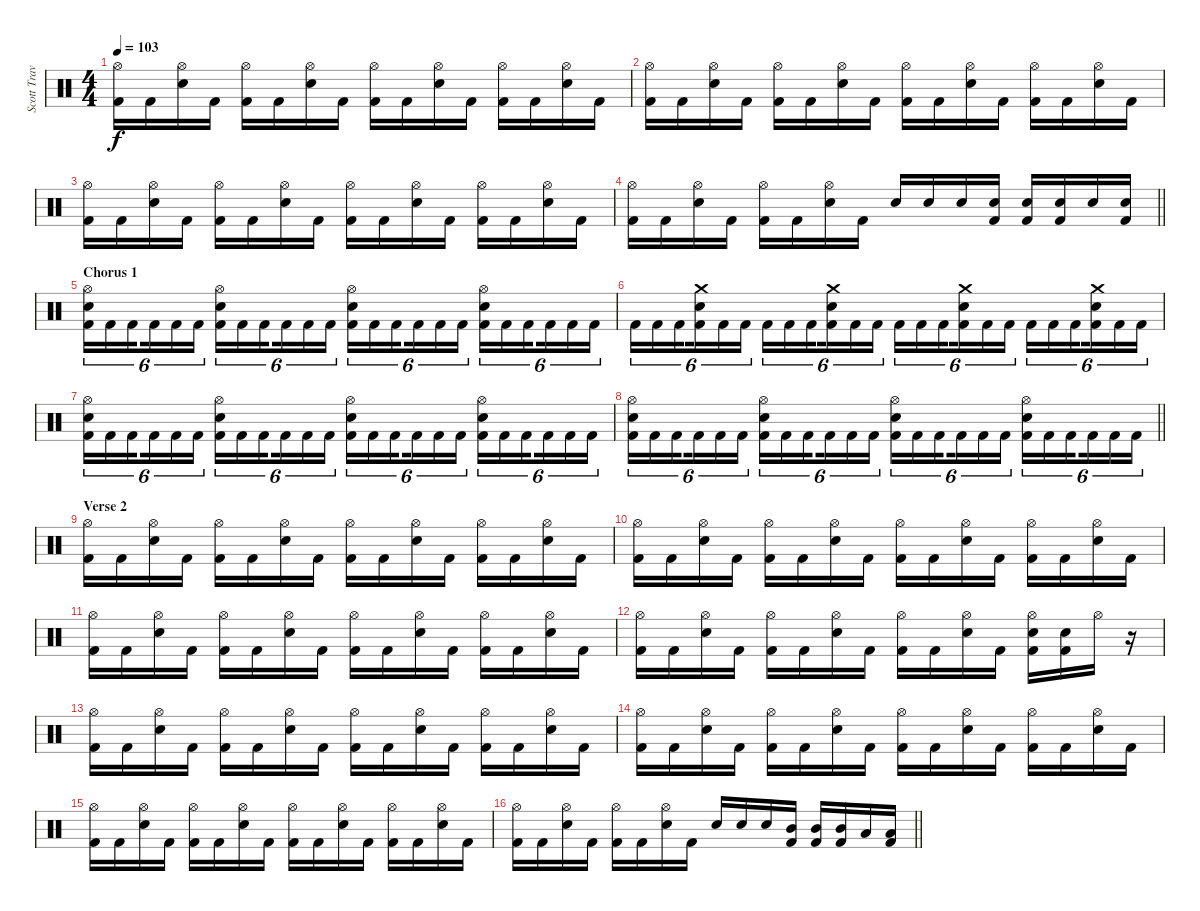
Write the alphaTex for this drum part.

\track ("Scott Travis" "Scott Trav") {instrument percussion}
\staff {score}
\articulation defaults
\ts (4 4)
\tempo 103
\clef neutral
\ks c
("Hi-Hat (open)" "Kick (hit) 2").16{dy f} "Kick (hit) 2".16 ("Hi-Hat (open)" "Snare (hit) 2").16 "Kick (hit) 2".16 ("Hi-Hat (open)" "Kick (hit) 2").16 "Kick (hit) 2".16 ("Hi-Hat (open)" "Snare (hit) 2").16 "Kick (hit) 2".16 ("Hi-Hat (open)" "Kick (hit) 2").16 "Kick (hit) 2".16 ("Hi-Hat (open)" "Snare (hit) 2").16 "Kick (hit) 2".16 ("Hi-Hat (open)" "Kick (hit) 2").16 "Kick (hit) 2".16 ("Hi-Hat (open)" "Snare (hit) 2").16 "Kick (hit) 2".16 |
("Hi-Hat (open)" "Kick (hit) 2").16 "Kick (hit) 2".16 ("Hi-Hat (open)" "Snare (hit) 2").16 "Kick (hit) 2".16 ("Hi-Hat (open)" "Kick (hit) 2").16 "Kick (hit) 2".16 ("Hi-Hat (open)" "Snare (hit) 2").16 "Kick (hit) 2".16 ("Hi-Hat (open)" "Kick (hit) 2").16 "Kick (hit) 2".16 ("Hi-Hat (open)" "Snare (hit) 2").16 "Kick (hit) 2".16 ("Hi-Hat (open)" "Kick (hit) 2").16 "Kick (hit) 2".16 ("Hi-Hat (open)" "Snare (hit) 2").16 "Kick (hit) 2".16 |
("Hi-Hat (open)" "Kick (hit) 2").16 "Kick (hit) 2".16 ("Hi-Hat (open)" "Snare (hit) 2").16 "Kick (hit) 2".16 ("Hi-Hat (open)" "Kick (hit) 2").16 "Kick (hit) 2".16 ("Hi-Hat (open)" "Snare (hit) 2").16 "Kick (hit) 2".16 ("Hi-Hat (open)" "Kick (hit) 2").16 "Kick (hit) 2".16 ("Hi-Hat (open)" "Snare (hit) 2").16 "Kick (hit) 2".16 ("Hi-Hat (open)" "Kick (hit) 2").16 "Kick (hit) 2".16 ("Hi-Hat (open)" "Snare (hit) 2").16 "Kick (hit) 2".16 |
\barLineRight lightlight
("Hi-Hat (open)" "Kick (hit) 2").16 "Kick (hit) 2".16 ("Hi-Hat (open)" "Snare (hit) 2").16 "Kick (hit) 2".16 ("Hi-Hat (open)" "Kick (hit) 2").16 "Kick (hit) 2".16 ("Hi-Hat (open)" "Snare (hit) 2").16 "Kick (hit) 2".16 "Snare (hit) 2".16 "Snare (hit) 2".16 "Snare (hit) 2".16 ("Snare (hit) 2" "Kick (hit) 2").16 ("Snare (hit) 2" "Kick (hit) 2").16 ("Snare (hit) 2" "Kick (hit) 2").16 "Snare (hit) 2".16 ("Snare (hit) 2" "Kick (hit) 2").16 |
\section ("" "Chorus 1")
("Hi-Hat (open)" "Snare (hit) 2" "Kick (hit) 2").16{tu (6 4)} "Kick (hit) 2".16{tu (6 4)} "Kick (hit) 2".16{tu (6 4) beam splitsecondary} "Kick (hit) 2".16{tu (6 4)} "Kick (hit) 2".16{tu (6 4)} "Kick (hit) 2".16{tu (6 4)} ("Hi-Hat (open)" "Snare (hit) 2" "Kick (hit) 2").16{tu (6 4)} "Kick (hit) 2".16{tu (6 4)} "Kick (hit) 2".16{tu (6 4) beam splitsecondary} "Kick (hit) 2".16{tu (6 4)} "Kick (hit) 2".16{tu (6 4)} "Kick (hit) 2".16{tu (6 4)} ("Hi-Hat (open)" "Snare (hit) 2" "Kick (hit) 2").16{tu (6 4)} "Kick (hit) 2".16{tu (6 4)} "Kick (hit) 2".16{tu (6 4) beam splitsecondary} "Kick (hit) 2".16{tu (6 4)} "Kick (hit) 2".16{tu (6 4)} "Kick (hit) 2".16{tu (6 4)} ("Hi-Hat (open)" "Snare (hit) 2" "Kick (hit) 2").16{tu (6 4)} "Kick (hit) 2".16{tu (6 4)} "Kick (hit) 2".16{tu (6 4) beam splitsecondary} "Kick (hit) 2".16{tu (6 4)} "Kick (hit) 2".16{tu (6 4)} "Kick (hit) 2".16{tu (6 4)} |
"Kick (hit) 2".16{tu (6 4)} "Kick (hit) 2".16{tu (6 4)} "Kick (hit) 2".16{tu (6 4) beam splitsecondary} ("Crash medium (hit)" "Snare (hit) 2" "Kick (hit) 2").16{tu (6 4)} "Kick (hit) 2".16{tu (6 4)} "Kick (hit) 2".16{tu (6 4)} "Kick (hit) 2".16{tu (6 4)} "Kick (hit) 2".16{tu (6 4)} "Kick (hit) 2".16{tu (6 4) beam splitsecondary} ("Crash medium (hit)" "Snare (hit) 2" "Kick (hit) 2").16{tu (6 4)} "Kick (hit) 2".16{tu (6 4)} "Kick (hit) 2".16{tu (6 4)} "Kick (hit) 2".16{tu (6 4)} "Kick (hit) 2".16{tu (6 4)} "Kick (hit) 2".16{tu (6 4) beam splitsecondary} ("Crash medium (hit)" "Snare (hit) 2" "Kick (hit) 2").16{tu (6 4)} "Kick (hit) 2".16{tu (6 4)} "Kick (hit) 2".16{tu (6 4)} "Kick (hit) 2".16{tu (6 4)} "Kick (hit) 2".16{tu (6 4)} "Kick (hit) 2".16{tu (6 4) beam splitsecondary} ("Snare (hit) 2" "Crash medium (hit)" "Kick (hit) 2").16{tu (6 4)} "Kick (hit) 2".16{tu (6 4)} "Kick (hit) 2".16{tu (6 4)} |
("Hi-Hat (open)" "Snare (hit) 2" "Kick (hit) 2").16{tu (6 4)} "Kick (hit) 2".16{tu (6 4)} "Kick (hit) 2".16{tu (6 4) beam splitsecondary} "Kick (hit) 2".16{tu (6 4)} "Kick (hit) 2".16{tu (6 4)} "Kick (hit) 2".16{tu (6 4)} ("Hi-Hat (open)" "Snare (hit) 2" "Kick (hit) 2").16{tu (6 4)} "Kick (hit) 2".16{tu (6 4)} "Kick (hit) 2".16{tu (6 4) beam splitsecondary} "Kick (hit) 2".16{tu (6 4)} "Kick (hit) 2".16{tu (6 4)} "Kick (hit) 2".16{tu (6 4)} ("Hi-Hat (open)" "Snare (hit) 2" "Kick (hit) 2").16{tu (6 4)} "Kick (hit) 2".16{tu (6 4)} "Kick (hit) 2".16{tu (6 4) beam splitsecondary} "Kick (hit) 2".16{tu (6 4)} "Kick (hit) 2".16{tu (6 4)} "Kick (hit) 2".16{tu (6 4)} ("Hi-Hat (open)" "Snare (hit) 2" "Kick (hit) 2").16{tu (6 4)} "Kick (hit) 2".16{tu (6 4)} "Kick (hit) 2".16{tu (6 4) beam splitsecondary} "Kick (hit) 2".16{tu (6 4)} "Kick (hit) 2".16{tu (6 4)} "Kick (hit) 2".16{tu (6 4)} |
\barLineRight lightlight
("Hi-Hat (open)" "Snare (hit) 2" "Kick (hit) 2").16{tu (6 4)} "Kick (hit) 2".16{tu (6 4)} "Kick (hit) 2".16{tu (6 4) beam splitsecondary} "Kick (hit) 2".16{tu (6 4)} "Kick (hit) 2".16{tu (6 4)} "Kick (hit) 2".16{tu (6 4)} ("Hi-Hat (open)" "Snare (hit) 2" "Kick (hit) 2").16{tu (6 4)} "Kick (hit) 2".16{tu (6 4)} "Kick (hit) 2".16{tu (6 4) beam splitsecondary} "Kick (hit) 2".16{tu (6 4)} "Kick (hit) 2".16{tu (6 4)} "Kick (hit) 2".16{tu (6 4)} ("Hi-Hat (open)" "Snare (hit) 2" "Kick (hit) 2").16{tu (6 4)} "Kick (hit) 2".16{tu (6 4)} "Kick (hit) 2".16{tu (6 4) beam splitsecondary} "Kick (hit) 2".16{tu (6 4)} "Kick (hit) 2".16{tu (6 4)} "Kick (hit) 2".16{tu (6 4)} ("Hi-Hat (open)" "Snare (hit) 2" "Kick (hit) 2").16{tu (6 4)} "Kick (hit) 2".16{tu (6 4)} "Kick (hit) 2".16{tu (6 4) beam splitsecondary} "Kick (hit) 2".16{tu (6 4)} "Kick (hit) 2".16{tu (6 4)} "Kick (hit) 2".16{tu (6 4)} |
\section ("" "Verse 2")
("Hi-Hat (open)" "Kick (hit) 2").16 "Kick (hit) 2".16 ("Hi-Hat (open)" "Snare (hit) 2").16 "Kick (hit) 2".16 ("Hi-Hat (open)" "Kick (hit) 2").16 "Kick (hit) 2".16 ("Hi-Hat (open)" "Snare (hit) 2").16 "Kick (hit) 2".16 ("Hi-Hat (open)" "Kick (hit) 2").16 "Kick (hit) 2".16 ("Hi-Hat (open)" "Snare (hit) 2").16 "Kick (hit) 2".16 ("Hi-Hat (open)" "Kick (hit) 2").16 "Kick (hit) 2".16 ("Hi-Hat (open)" "Snare (hit) 2").16 "Kick (hit) 2".16 |
("Hi-Hat (open)" "Kick (hit) 2").16 "Kick (hit) 2".16 ("Hi-Hat (open)" "Snare (hit) 2").16 "Kick (hit) 2".16 ("Hi-Hat (open)" "Kick (hit) 2").16 "Kick (hit) 2".16 ("Hi-Hat (open)" "Snare (hit) 2").16 "Kick (hit) 2".16 ("Hi-Hat (open)" "Kick (hit) 2").16 "Kick (hit) 2".16 ("Hi-Hat (open)" "Snare (hit) 2").16 "Kick (hit) 2".16 ("Hi-Hat (open)" "Kick (hit) 2").16 "Kick (hit) 2".16 ("Hi-Hat (open)" "Snare (hit) 2").16 "Kick (hit) 2".16 |
("Hi-Hat (open)" "Kick (hit) 2").16 "Kick (hit) 2".16 ("Hi-Hat (open)" "Snare (hit) 2").16 "Kick (hit) 2".16 ("Hi-Hat (open)" "Kick (hit) 2").16 "Kick (hit) 2".16 ("Hi-Hat (open)" "Snare (hit) 2").16 "Kick (hit) 2".16 ("Hi-Hat (open)" "Kick (hit) 2").16 "Kick (hit) 2".16 ("Hi-Hat (open)" "Snare (hit) 2").16 "Kick (hit) 2".16 ("Hi-Hat (open)" "Kick (hit) 2").16 "Kick (hit) 2".16 ("Hi-Hat (open)" "Snare (hit) 2").16 "Kick (hit) 2".16 |
("Hi-Hat (open)" "Kick (hit) 2").16 "Kick (hit) 2".16 ("Hi-Hat (open)" "Snare (hit) 2").16 "Kick (hit) 2".16 ("Hi-Hat (open)" "Kick (hit) 2").16 "Kick (hit) 2".16 ("Hi-Hat (open)" "Snare (hit) 2").16 "Kick (hit) 2".16 ("Hi-Hat (open)" "Kick (hit) 2").16 "Kick (hit) 2".16 ("Hi-Hat (open)" "Snare (hit) 2").16 "Kick (hit) 2".16 ("Hi-Hat (open)" "Snare (hit) 2" "Kick (hit) 2").16 ("Snare (hit) 2" "Kick (hit) 2").16 "Hi-Hat (open)".16 r.16 |
("Hi-Hat (open)" "Kick (hit) 2").16 "Kick (hit) 2".16 ("Hi-Hat (open)" "Snare (hit) 2").16 "Kick (hit) 2".16 ("Hi-Hat (open)" "Kick (hit) 2").16 "Kick (hit) 2".16 ("Hi-Hat (open)" "Snare (hit) 2").16 "Kick (hit) 2".16 ("Hi-Hat (open)" "Kick (hit) 2").16 "Kick (hit) 2".16 ("Hi-Hat (open)" "Snare (hit) 2").16 "Kick (hit) 2".16 ("Hi-Hat (open)" "Kick (hit) 2").16 "Kick (hit) 2".16 ("Hi-Hat (open)" "Snare (hit) 2").16 "Kick (hit) 2".16 |
("Hi-Hat (open)" "Kick (hit) 2").16 "Kick (hit) 2".16 ("Hi-Hat (open)" "Snare (hit) 2").16 "Kick (hit) 2".16 ("Hi-Hat (open)" "Kick (hit) 2").16 "Kick (hit) 2".16 ("Hi-Hat (open)" "Snare (hit) 2").16 "Kick (hit) 2".16 ("Hi-Hat (open)" "Kick (hit) 2").16 "Kick (hit) 2".16 ("Hi-Hat (open)" "Snare (hit) 2").16 "Kick (hit) 2".16 ("Hi-Hat (open)" "Kick (hit) 2").16 "Kick (hit) 2".16 ("Hi-Hat (open)" "Snare (hit) 2").16 "Kick (hit) 2".16 |
("Hi-Hat (open)" "Kick (hit) 2").16 "Kick (hit) 2".16 ("Hi-Hat (open)" "Snare (hit) 2").16 "Kick (hit) 2".16 ("Hi-Hat (open)" "Kick (hit) 2").16 "Kick (hit) 2".16 ("Hi-Hat (open)" "Snare (hit) 2").16 "Kick (hit) 2".16 ("Hi-Hat (open)" "Kick (hit) 2").16 "Kick (hit) 2".16 ("Hi-Hat (open)" "Snare (hit) 2").16 "Kick (hit) 2".16 ("Hi-Hat (open)" "Kick (hit) 2").16 "Kick (hit) 2".16 ("Hi-Hat (open)" "Snare (hit) 2").16 "Kick (hit) 2".16 |
\barLineRight lightlight
("Hi-Hat (open)" "Kick (hit) 2").16 "Kick (hit) 2".16 ("Hi-Hat (open)" "Snare (hit) 2").16 "Kick (hit) 2".16 ("Hi-Hat (open)" "Kick (hit) 2").16 "Kick (hit) 2".16 ("Hi-Hat (open)" "Snare (hit) 2").16 "Kick (hit) 2".16 "Snare (hit) 2".16 "Snare (hit) 2".16 "Snare (hit) 2".16 ("Mid Tom (hit)" "Kick (hit) 2").16 ("Mid Tom (hit)" "Kick (hit) 2").16 ("Mid Tom (hit)" "Kick (hit) 2").16 "Low Tom (hit)".16 ("Low Tom (hit)" "Kick (hit) 2").16
